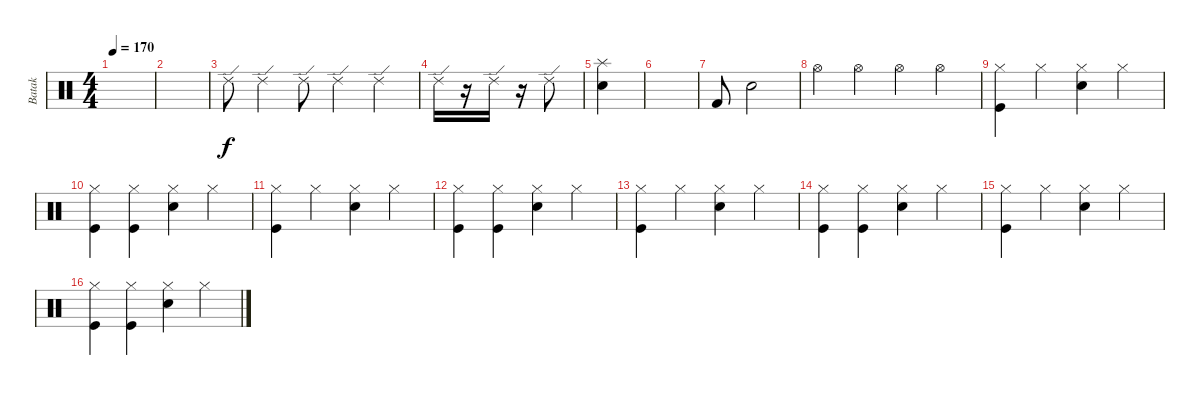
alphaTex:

\track ("Batak" "Batak") {instrument percussion}
\staff {score}
\articulation defaults
\ts (4 4)
\tempo 170
\clef neutral
\ks c
|
|
"Ride (edge) 2".8 "Ride (edge) 2".4 "Ride (edge) 2".8 "Ride (edge) 2".4 "Ride (edge) 2".4 |
"Ride (edge) 2".16 r.16 "Ride (edge) 2".16 r.16 "Ride (edge) 2".8 |
("Splash (hit)" "Electric Snare (hit)").4 |
|
"Kick (hit) 2".8 "Snare (hit) 2".2 |
"Hi-Hat (open)".4 "Hi-Hat (open)".4 "Hi-Hat (open)".4 "Hi-Hat (open)".4 |
("Hi-Hat (closed)" "Kick (hit)").4 "Hi-Hat (closed)".4 ("Hi-Hat (closed)" "Snare (hit) 2").4 "Hi-Hat (closed)".4 |
("Hi-Hat (closed)" "Kick (hit)").4 ("Hi-Hat (closed)" "Kick (hit)").4 ("Hi-Hat (closed)" "Snare (hit) 2").4 "Hi-Hat (closed)".4 |
("Hi-Hat (closed)" "Kick (hit)").4 "Hi-Hat (closed)".4 ("Hi-Hat (closed)" "Snare (hit) 2").4 "Hi-Hat (closed)".4 |
("Hi-Hat (closed)" "Kick (hit)").4 ("Hi-Hat (closed)" "Kick (hit)").4 ("Hi-Hat (closed)" "Snare (hit) 2").4 "Hi-Hat (closed)".4 |
("Hi-Hat (closed)" "Kick (hit)").4 "Hi-Hat (closed)".4 ("Hi-Hat (closed)" "Snare (hit) 2").4 "Hi-Hat (closed)".4 |
("Hi-Hat (closed)" "Kick (hit)").4 ("Hi-Hat (closed)" "Kick (hit)").4 ("Hi-Hat (closed)" "Snare (hit) 2").4 "Hi-Hat (closed)".4 |
("Hi-Hat (closed)" "Kick (hit)").4 "Hi-Hat (closed)".4 ("Hi-Hat (closed)" "Snare (hit) 2").4 "Hi-Hat (closed)".4 |
("Hi-Hat (closed)" "Kick (hit)").4 ("Hi-Hat (closed)" "Kick (hit)").4 ("Hi-Hat (closed)" "Snare (hit) 2").4 "Hi-Hat (closed)".4
